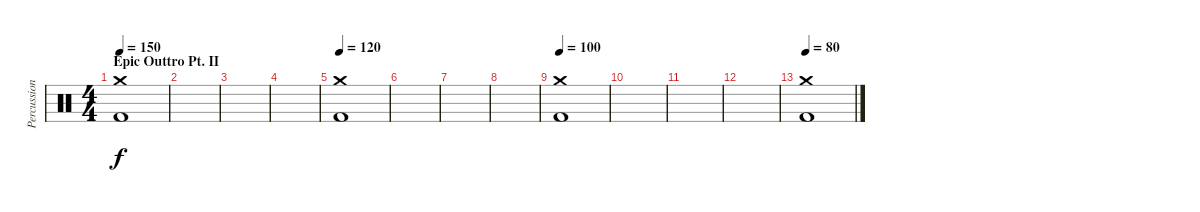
\track ("Percussion" "Percussion") {instrument percussion}
\staff {score}
\articulation defaults
\ts (4 4)
\section ("" "Epic Outtro Pt. II")
\tempo 150
\clef neutral
\ks c
("Crash medium (hit)" "Kick (hit) 2").1{dy f} |
|
|
|
\tempo 120
("Crash medium (hit)" "Kick (hit) 2").1 |
|
|
|
\tempo 100
("Crash medium (hit)" "Kick (hit) 2").1 |
|
|
|
\tempo 80
("Crash medium (hit)" "Kick (hit) 2").1
